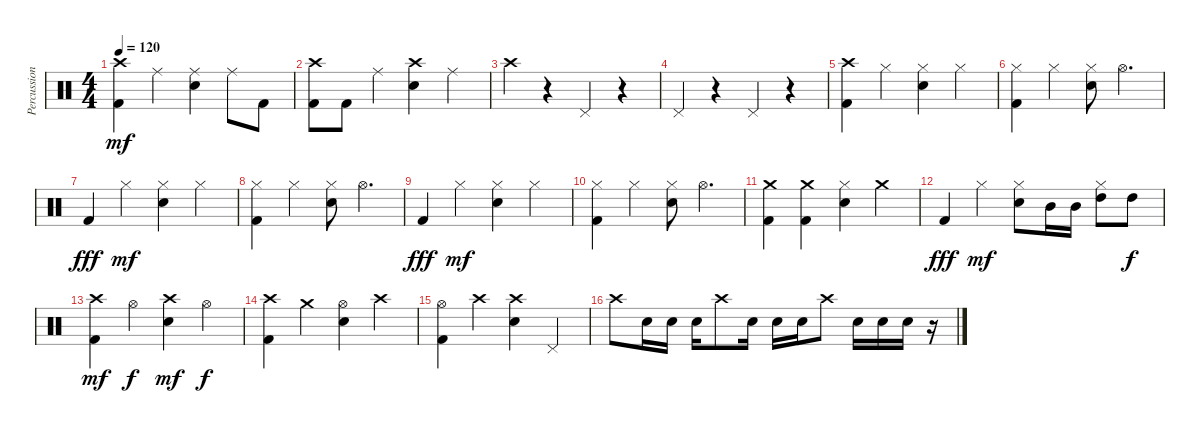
\track ("Percussioni" "Percussion") {instrument percussion}
\staff {score}
\articulation defaults
\ts (4 4)
\tempo 120
\clef neutral
\ks c
("Crash high (hit)" "Kick (hit) 2").4{dy mf} "Ride (middle)".4 ("Ride (middle)" "Snare (hit) 2").4 "Ride (middle)".8 "Kick (hit) 2".8 |
("Crash high (hit)" "Kick (hit) 2").8 "Kick (hit) 2".8 "Ride (middle)".4 ("Crash high (hit)" "Snare (hit) 2").4 "Ride (middle)".4 |
"Crash high (hit)".4 r.4 "Pedal Hi-Hat (hit)".4 r.4 |
"Pedal Hi-Hat (hit)".4 r.4 "Pedal Hi-Hat (hit)".4 r.4 |
("Crash high (hit)" "Kick (hit) 2").4 "Hi-Hat (closed)".4 ("Hi-Hat (closed)" "Snare (hit) 2").4 "Hi-Hat (closed)".4 |
("Hi-Hat (closed)" "Kick (hit) 2").4 "Hi-Hat (closed)".4 ("Hi-Hat (closed)" "Snare (hit) 2").8 "Hi-Hat (open)".4{d} |
"Kick (hit) 2".4{dy fff} "Hi-Hat (closed)".4{dy mf} ("Hi-Hat (closed)" "Snare (hit) 2").4 "Hi-Hat (closed)".4 |
("Hi-Hat (closed)" "Kick (hit) 2").4 "Hi-Hat (closed)".4 ("Hi-Hat (closed)" "Snare (hit) 2").8 "Hi-Hat (open)".4{d} |
"Kick (hit) 2".4{dy fff} "Hi-Hat (closed)".4{dy mf} ("Hi-Hat (closed)" "Snare (hit) 2").4 "Hi-Hat (closed)".4 |
("Hi-Hat (closed)" "Kick (hit) 2").4 "Hi-Hat (closed)".4 ("Hi-Hat (closed)" "Snare (hit) 2").8 "Hi-Hat (open)".4{d} |
("Crash medium (hit)" "Kick (hit) 2").4 ("Crash medium (hit)" "Kick (hit) 2").4 ("Hi-Hat (closed)" "Snare (hit) 2").4 "Crash medium (hit)".4 |
"Kick (hit) 2".4{dy fff} "Hi-Hat (closed)".4{dy mf} ("Hi-Hat (closed)" "Snare (hit) 2").8 "Mid Tom (hit)".16 "Mid Tom (hit)".16 ("Hi-Hat (closed)" "High Tom (hit)").8 "High Tom (hit)".8{dy f} |
("Crash high (hit)" "Kick (hit) 2").4{dy mf} "Hi-Hat (open)".4{dy f} ("Crash high (hit)" "Snare (hit) 2").4{dy mf} "Hi-Hat (open)".4{dy f} |
("Crash high (hit)" "Kick (hit) 2").4 "Crash medium (hit)".4 ("Hi-Hat (open)" "Snare (hit) 2").4 "Crash high (hit)".4 |
("Hi-Hat (open)" "Kick (hit) 2").4 "Crash high (hit)".4 ("Crash high (hit)" "Snare (hit) 2").4 "Pedal Hi-Hat (hit)".4 |
"Crash high (hit)".8 "Snare (hit) 2".16 "Snare (hit) 2".16 "Snare (hit) 2".16 "Crash high (hit)".8 "Snare (hit) 2".16 "Snare (hit) 2".16 "Snare (hit) 2".16 "Crash high (hit)".8 "Snare (hit) 2".16 "Snare (hit) 2".16 "Snare (hit) 2".16 r.16
